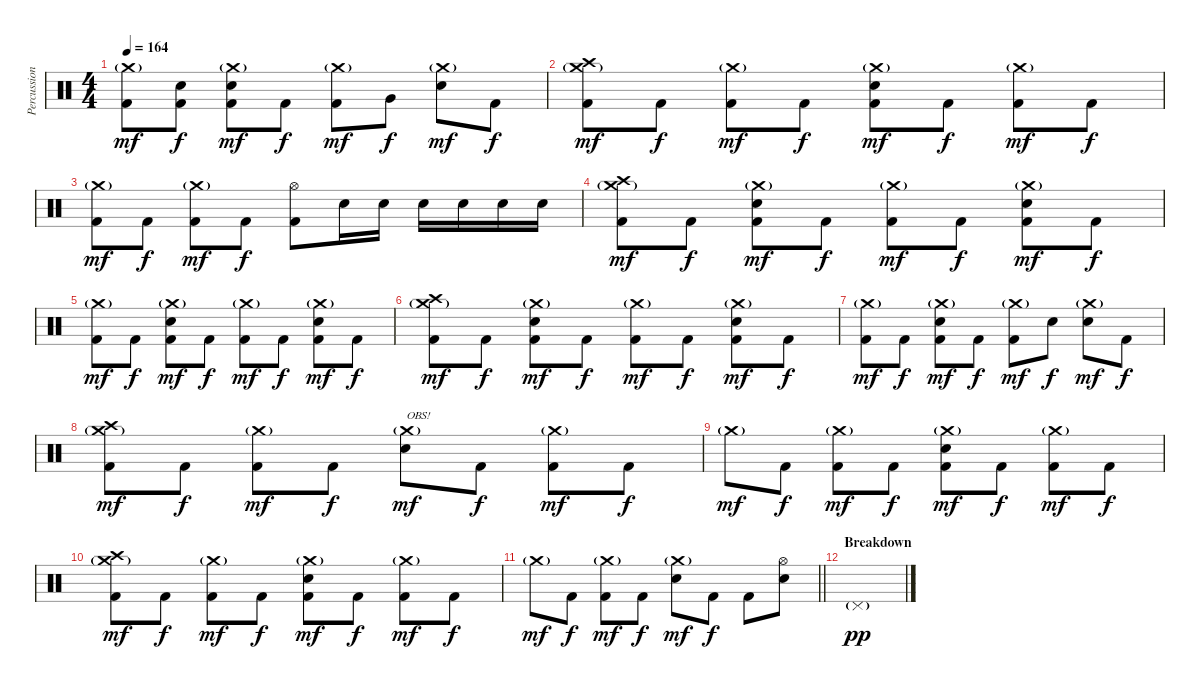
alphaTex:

\track ("Percussion - Michael Ambrose" "Percussion") {instrument percussion}
\staff {score}
\articulation defaults
\ts (4 4)
\tempo 164
\clef neutral
\ks c
("Crash medium (hit)"{g} "Kick (hit) 2").8{dy mf} ("Electric Snare (hit)" "Kick (hit) 2").8{dy f} ("Crash medium (hit)"{g} "Electric Snare (hit)" "Kick (hit) 2").8{dy mf} "Kick (hit) 2".8{dy f} ("Crash medium (hit)"{g} "Kick (hit) 2").8{dy mf} "Very Low Tom (hit)".8{dy f} ("Crash medium (hit)"{g} "Electric Snare (hit)").8{dy mf} "Kick (hit) 2".8{dy f} |
("Crash high (hit)" "Crash medium (hit)"{g} "Kick (hit) 2").8{dy mf} "Kick (hit) 2".8{dy f} ("Crash medium (hit)"{g} "Kick (hit) 2").8{dy mf} "Kick (hit) 2".8{dy f} ("Crash medium (hit)"{g} "Electric Snare (hit)" "Kick (hit) 2").8{dy mf} "Kick (hit) 2".8{dy f} ("Crash medium (hit)"{g} "Kick (hit) 2").8{dy mf} "Kick (hit) 2".8{dy f} |
("Crash medium (hit)"{g} "Kick (hit) 2").8{dy mf} "Kick (hit) 2".8{dy f} ("Crash medium (hit)"{g} "Kick (hit) 2").8{dy mf} "Kick (hit) 2".8{dy f} ("Hi-Hat (open)" "Kick (hit) 2").8 "Electric Snare (hit)".16 "Electric Snare (hit)".16 "Electric Snare (hit)".16 "Electric Snare (hit)".16 "Electric Snare (hit)".16 "Electric Snare (hit)".16 |
("Crash high (hit)" "Crash medium (hit)"{g} "Kick (hit) 2").8{dy mf} "Kick (hit) 2".8{dy f} ("Crash medium (hit)"{g} "Electric Snare (hit)" "Kick (hit) 2").8{dy mf} "Kick (hit) 2".8{dy f} ("Crash medium (hit)"{g} "Kick (hit) 2").8{dy mf} "Kick (hit) 2".8{dy f} ("Crash medium (hit)"{g} "Electric Snare (hit)" "Kick (hit) 2").8{dy mf} "Kick (hit) 2".8{dy f} |
("Crash medium (hit)"{g} "Kick (hit) 2").8{dy mf} "Kick (hit) 2".8{dy f} ("Crash medium (hit)"{g} "Electric Snare (hit)" "Kick (hit) 2").8{dy mf} "Kick (hit) 2".8{dy f} ("Crash medium (hit)"{g} "Kick (hit) 2").8{dy mf} "Kick (hit) 2".8{dy f} ("Crash medium (hit)"{g} "Electric Snare (hit)" "Kick (hit) 2").8{dy mf} "Kick (hit) 2".8{dy f} |
("Crash high (hit)" "Crash medium (hit)"{g} "Kick (hit) 2").8{dy mf} "Kick (hit) 2".8{dy f} ("Crash medium (hit)"{g} "Electric Snare (hit)" "Kick (hit) 2").8{dy mf} "Kick (hit) 2".8{dy f} ("Crash medium (hit)"{g} "Kick (hit) 2").8{dy mf} "Kick (hit) 2".8{dy f} ("Crash medium (hit)"{g} "Electric Snare (hit)" "Kick (hit) 2").8{dy mf} "Kick (hit) 2".8{dy f} |
("Crash medium (hit)"{g} "Kick (hit) 2").8{dy mf} "Kick (hit) 2".8{dy f} ("Crash medium (hit)"{g} "Electric Snare (hit)" "Kick (hit) 2").8{dy mf} "Kick (hit) 2".8{dy f} ("Crash medium (hit)"{g} "Kick (hit) 2").8{dy mf} "Electric Snare (hit)".8{dy f} ("Crash medium (hit)"{g} "Electric Snare (hit)").8{dy mf} "Kick (hit) 2".8{dy f} |
("Crash high (hit)" "Crash medium (hit)"{g} "Kick (hit) 2").8{dy mf} "Kick (hit) 2".8{dy f} ("Crash medium (hit)"{g} "Kick (hit) 2").8{dy mf} "Kick (hit) 2".8{dy f} ("Crash medium (hit)"{g} "Electric Snare (hit)").8{txt "OBS!" dy mf} "Kick (hit) 2".8{dy f} ("Crash medium (hit)"{g} "Kick (hit) 2").8{dy mf} "Kick (hit) 2".8{dy f} |
"Crash medium (hit)"{g}.8{dy mf} "Kick (hit) 2".8{dy f} ("Crash medium (hit)"{g} "Kick (hit) 2").8{dy mf} "Kick (hit) 2".8{dy f} ("Crash medium (hit)"{g} "Electric Snare (hit)" "Kick (hit) 2").8{dy mf} "Kick (hit) 2".8{dy f} ("Crash medium (hit)"{g} "Kick (hit) 2").8{dy mf} "Kick (hit) 2".8{dy f} |
("Crash high (hit)" "Crash medium (hit)"{g} "Kick (hit) 2").8{dy mf} "Kick (hit) 2".8{dy f} ("Crash medium (hit)"{g} "Kick (hit) 2").8{dy mf} "Kick (hit) 2".8{dy f} ("Crash medium (hit)"{g} "Electric Snare (hit)" "Kick (hit) 2").8{dy mf} "Kick (hit) 2".8{dy f} ("Crash medium (hit)"{g} "Kick (hit) 2").8{dy mf} "Kick (hit) 2".8{dy f} |
\barLineRight lightlight "Crash medium (hit)"{g}.8{dy mf} "Kick (hit) 2".8{dy f}
("Crash medium (hit)"{g} "Kick (hit) 2").8{dy mf} "Kick (hit) 2".8{dy f} ("Crash medium (hit)"{g} "Electric Snare (hit)").8{dy mf} "Kick (hit) 2".8{dy f} "Kick (hit) 2".8 ("Hi-Hat (open)" "Electric Snare (hit)").8 |
\section ("" "Breakdown")
"Pedal Hi-Hat (hit)"{g}.1{dy pp}
